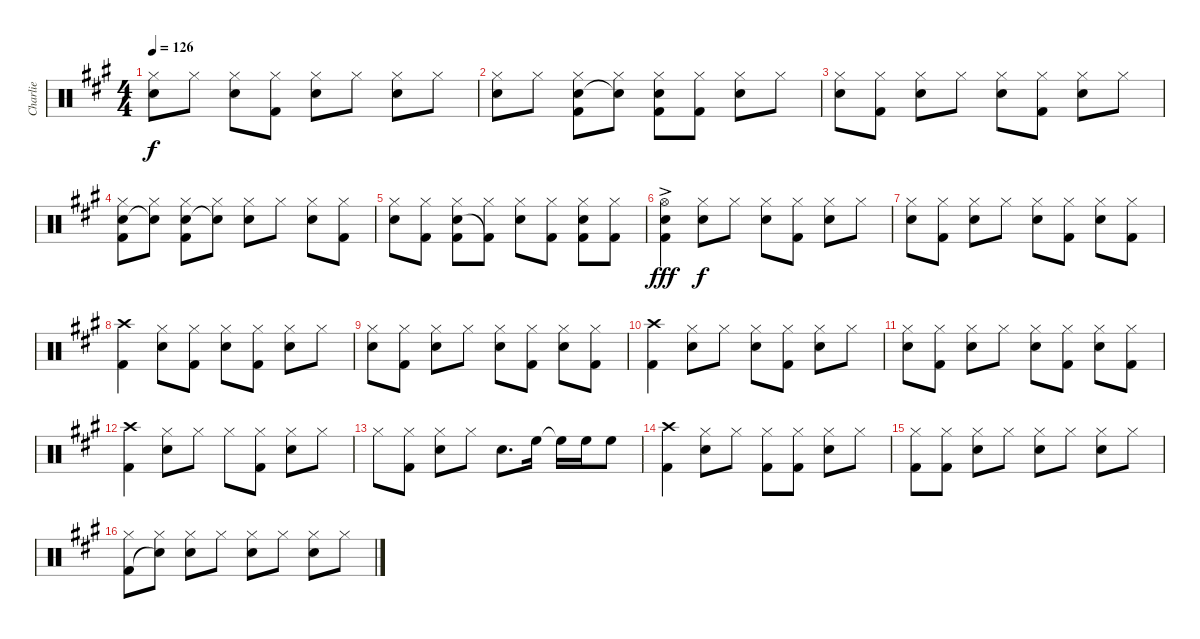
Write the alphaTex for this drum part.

\track ("Charlie" "Charlie") {instrument percussion}
\staff {score}
\articulation defaults
\ts (4 4)
\tempo 126
\clef neutral
\ks a
("Hi-Hat (closed)" "Snare (hit) 2").8{dy f} "Hi-Hat (closed)".8 ("Hi-Hat (closed)" "Snare (hit) 2").8 ("Hi-Hat (closed)" "Kick (hit) 2").8 ("Hi-Hat (closed)" "Snare (hit) 2").8 "Hi-Hat (closed)".8 ("Hi-Hat (closed)" "Snare (hit) 2").8 "Hi-Hat (closed)".8 |
("Hi-Hat (closed)" "Snare (hit) 2").8 "Hi-Hat (closed)".8 ("Hi-Hat (closed)" "Snare (hit) 2" "Kick (hit) 2").8 ("Hi-Hat (closed)" "Snare (hit)"{t}).8 ("Hi-Hat (closed)" "Snare (hit) 2" "Kick (hit) 2").8 ("Hi-Hat (closed)" "Kick (hit) 2").8 ("Hi-Hat (closed)" "Snare (hit) 2").8 "Hi-Hat (closed)".8 |
("Hi-Hat (closed)" "Snare (hit) 2").8 ("Hi-Hat (closed)" "Kick (hit) 2").8 ("Hi-Hat (closed)" "Snare (hit) 2").8 "Hi-Hat (closed)".8 ("Hi-Hat (closed)" "Snare (hit) 2").8 ("Hi-Hat (closed)" "Kick (hit) 2").8 ("Hi-Hat (closed)" "Snare (hit) 2").8 "Hi-Hat (closed)".8 |
("Hi-Hat (closed)" "Snare (hit) 2" "Kick (hit) 2").8 ("Hi-Hat (closed)" "Snare (hit)"{t}).8 ("Hi-Hat (closed)" "Snare (hit) 2" "Kick (hit) 2").8 ("Hi-Hat (closed)" "Snare (hit)"{t}).8 ("Hi-Hat (closed)" "Snare (hit) 2").8 "Hi-Hat (closed)".8 ("Hi-Hat (closed)" "Snare (hit) 2").8 ("Hi-Hat (closed)" "Kick (hit) 2").8 |
("Hi-Hat (closed)" "Snare (hit) 2").8 ("Hi-Hat (closed)" "Kick (hit) 2").8 ("Hi-Hat (closed)" "Snare (hit) 2" "Kick (hit) 2").8 ("Hi-Hat (closed)" "Kick (hit) 2"{t}).8 ("Hi-Hat (closed)" "Snare (hit) 2").8 ("Hi-Hat (closed)" "Kick (hit) 2").8 ("Hi-Hat (closed)" "Snare (hit) 2" "Kick (hit) 2").8 ("Hi-Hat (closed)" "Kick (hit) 2").8 |
("Hi-Hat (open)"{ac} "Snare (hit) 2" "Kick (hit) 2").4{dy fff} ("Hi-Hat (closed)" "Snare (hit) 2").8{dy f} "Hi-Hat (closed)".8 ("Hi-Hat (closed)" "Snare (hit) 2").8 ("Hi-Hat (closed)" "Kick (hit) 2").8 ("Hi-Hat (closed)" "Snare (hit) 2").8 "Hi-Hat (closed)".8 |
("Hi-Hat (closed)" "Snare (hit) 2").8 ("Hi-Hat (closed)" "Kick (hit) 2").8 ("Hi-Hat (closed)" "Snare (hit) 2").8 "Hi-Hat (closed)".8 ("Hi-Hat (closed)" "Snare (hit) 2").8 ("Hi-Hat (closed)" "Kick (hit) 2").8 ("Hi-Hat (closed)" "Snare (hit) 2").8 ("Hi-Hat (closed)" "Kick (hit) 2").8 |
("Crash high (hit)" "Kick (hit) 2").4 ("Hi-Hat (closed)" "Snare (hit) 2").8 ("Hi-Hat (closed)" "Kick (hit) 2").8 ("Hi-Hat (closed)" "Snare (hit) 2").8 ("Hi-Hat (closed)" "Kick (hit) 2").8 ("Hi-Hat (closed)" "Snare (hit) 2").8 "Hi-Hat (closed)".8 |
("Hi-Hat (closed)" "Snare (hit) 2").8 ("Hi-Hat (closed)" "Kick (hit) 2").8 ("Hi-Hat (closed)" "Snare (hit) 2").8 "Hi-Hat (closed)".8 ("Hi-Hat (closed)" "Snare (hit) 2").8 ("Hi-Hat (closed)" "Kick (hit) 2").8 ("Hi-Hat (closed)" "Snare (hit) 2").8 ("Hi-Hat (closed)" "Kick (hit) 2").8 |
("Crash high (hit)" "Kick (hit) 2").4 ("Hi-Hat (closed)" "Snare (hit) 2").8 "Hi-Hat (closed)".8 ("Hi-Hat (closed)" "Snare (hit) 2").8 ("Hi-Hat (closed)" "Kick (hit) 2").8 ("Hi-Hat (closed)" "Snare (hit) 2").8 "Hi-Hat (closed)".8 |
("Hi-Hat (closed)" "Snare (hit) 2").8 ("Hi-Hat (closed)" "Kick (hit) 2").8 ("Hi-Hat (closed)" "Snare (hit) 2").8 "Hi-Hat (closed)".8 ("Hi-Hat (closed)" "Snare (hit) 2").8 ("Hi-Hat (closed)" "Kick (hit) 2").8 ("Hi-Hat (closed)" "Snare (hit) 2").8 ("Hi-Hat (closed)" "Kick (hit) 2").8 |
("Crash high (hit)" "Kick (hit) 2").4 ("Hi-Hat (closed)" "Snare (hit) 2").8 "Hi-Hat (closed)".8 "Hi-Hat (closed)".8 ("Hi-Hat (closed)" "Kick (hit) 2").8 ("Hi-Hat (closed)" "Snare (hit) 2").8 "Hi-Hat (closed)".8 |
"Hi-Hat (closed)".8 ("Hi-Hat (closed)" "Kick (hit) 2").8 ("Hi-Hat (closed)" "Snare (hit) 2").8 "Hi-Hat (closed)".8 "Snare (hit) 2".8{d} "High Floor Tom (hit)".16 "High Floor Tom (hit)"{t}.16 "High Floor Tom (hit)".16 "High Floor Tom (hit)".8 |
("Crash high (hit)" "Kick (hit) 2").4 ("Hi-Hat (closed)" "Snare (hit) 2").8 "Hi-Hat (closed)".8 ("Hi-Hat (closed)" "Kick (hit) 2").8 ("Hi-Hat (closed)" "Kick (hit) 2").8 ("Hi-Hat (closed)" "Snare (hit) 2").8 "Hi-Hat (closed)".8 |
("Hi-Hat (closed)" "Kick (hit) 2").8 ("Hi-Hat (closed)" "Kick (hit) 2").8 ("Hi-Hat (closed)" "Snare (hit) 2").8 "Hi-Hat (closed)".8 ("Hi-Hat (closed)" "Snare (hit) 2").8 "Hi-Hat (closed)".8 ("Hi-Hat (closed)" "Snare (hit) 2").8 "Hi-Hat (closed)".8 |
("Hi-Hat (closed)" "Kick (hit) 2").8 ("Hi-Hat (closed)" "Snare (hit)"{t}).8 ("Hi-Hat (closed)" "Snare (hit) 2").8 "Hi-Hat (closed)".8 ("Hi-Hat (closed)" "Snare (hit) 2").8 "Hi-Hat (closed)".8 ("Hi-Hat (closed)" "Snare (hit) 2").8 "Hi-Hat (closed)".8
